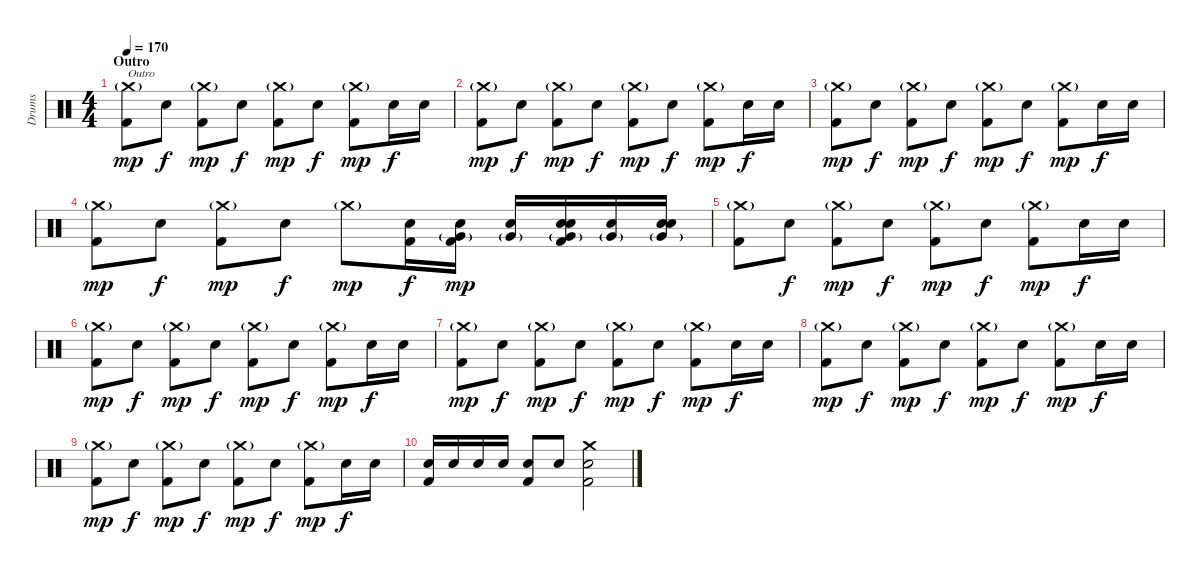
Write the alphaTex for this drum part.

\track ("Drums" "Drums") {instrument percussion}
\staff {score}
\articulation defaults
\ts (4 4)
\section ("" "Outro")
\tempo 170
\clef neutral
\ks c
("Crash medium (hit)"{g} "Kick (hit) 2").8{txt "Outro" dy mp} "Snare (hit) 2".8{dy f} ("Crash medium (hit)"{g} "Kick (hit) 2").8{dy mp} "Snare (hit) 2".8{dy f} ("Crash medium (hit)"{g} "Kick (hit) 2").8{dy mp} "Snare (hit) 2".8{dy f} ("Crash medium (hit)"{g} "Kick (hit) 2").8{dy mp} "Snare (hit) 2".16{dy f} "Snare (hit) 2".16 |
("Crash medium (hit)"{g} "Kick (hit) 2").8{dy mp} "Snare (hit) 2".8{dy f} ("Crash medium (hit)"{g} "Kick (hit) 2").8{dy mp} "Snare (hit) 2".8{dy f} ("Crash medium (hit)"{g} "Kick (hit) 2").8{dy mp} "Snare (hit) 2".8{dy f} ("Crash medium (hit)"{g} "Kick (hit) 2").8{dy mp} "Snare (hit) 2".16{dy f} "Snare (hit) 2".16 |
("Crash medium (hit)"{g} "Kick (hit) 2").8{dy mp} "Snare (hit) 2".8{dy f} ("Crash medium (hit)"{g} "Kick (hit) 2").8{dy mp} "Snare (hit) 2".8{dy f} ("Crash medium (hit)"{g} "Kick (hit) 2").8{dy mp} "Snare (hit) 2".8{dy f} ("Crash medium (hit)"{g} "Kick (hit) 2").8{dy mp} "Snare (hit) 2".16{dy f} "Snare (hit) 2".16 |
("Crash medium (hit)"{g} "Kick (hit) 2").8{dy mp} "Snare (hit) 2".8{dy f} ("Crash medium (hit)"{g} "Kick (hit) 2").8{dy mp} "Snare (hit) 2".8{dy f} "Crash medium (hit)"{g}.8{dy mp} ("Snare (hit) 2" "Kick (hit) 2").16{dy f} ("Very Low Tom (hit)"{g} "Snare (hit) 2" "Kick (hit) 2").16{dy mp} ("Very Low Tom (hit)"{g} "Snare (hit) 2").16 ("Very Low Tom (hit)"{g} "Snare (hit) 2" "Kick (hit) 2" "Snare (hit) 2").16 ("Very Low Tom (hit)"{g} "Snare (hit) 2").16 ("Very Low Tom (hit)"{g} "Snare (hit) 2" "Snare (hit) 2").16 |
("Crash medium (hit)"{g} "Kick (hit) 2").8 "Snare (hit) 2".8{dy f} ("Crash medium (hit)"{g} "Kick (hit) 2").8{dy mp} "Snare (hit) 2".8{dy f} ("Crash medium (hit)"{g} "Kick (hit) 2").8{dy mp} "Snare (hit) 2".8{dy f} ("Crash medium (hit)"{g} "Kick (hit) 2").8{dy mp} "Snare (hit) 2".16{dy f} "Snare (hit) 2".16 |
("Crash medium (hit)"{g} "Kick (hit) 2").8{dy mp} "Snare (hit) 2".8{dy f} ("Crash medium (hit)"{g} "Kick (hit) 2").8{dy mp} "Snare (hit) 2".8{dy f} ("Crash medium (hit)"{g} "Kick (hit) 2").8{dy mp} "Snare (hit) 2".8{dy f} ("Crash medium (hit)"{g} "Kick (hit) 2").8{dy mp} "Snare (hit) 2".16{dy f} "Snare (hit) 2".16 |
("Crash medium (hit)"{g} "Kick (hit) 2").8{dy mp} "Snare (hit) 2".8{dy f} ("Crash medium (hit)"{g} "Kick (hit) 2").8{dy mp} "Snare (hit) 2".8{dy f} ("Crash medium (hit)"{g} "Kick (hit) 2").8{dy mp} "Snare (hit) 2".8{dy f} ("Crash medium (hit)"{g} "Kick (hit) 2").8{dy mp} "Snare (hit) 2".16{dy f} "Snare (hit) 2".16 |
("Crash medium (hit)"{g} "Kick (hit) 2").8{dy mp} "Snare (hit) 2".8{dy f} ("Crash medium (hit)"{g} "Kick (hit) 2").8{dy mp} "Snare (hit) 2".8{dy f} ("Crash medium (hit)"{g} "Kick (hit) 2").8{dy mp} "Snare (hit) 2".8{dy f} ("Crash medium (hit)"{g} "Kick (hit) 2").8{dy mp} "Snare (hit) 2".16{dy f} "Snare (hit) 2".16 |
("Crash medium (hit)"{g} "Kick (hit) 2").8{dy mp} "Snare (hit) 2".8{dy f} ("Crash medium (hit)"{g} "Kick (hit) 2").8{dy mp} "Snare (hit) 2".8{dy f} ("Crash medium (hit)"{g} "Kick (hit) 2").8{dy mp} "Snare (hit) 2".8{dy f} ("Crash medium (hit)"{g} "Kick (hit) 2").8{dy mp} "Snare (hit) 2".16{dy f} "Snare (hit) 2".16 |
("Snare (hit) 2" "Kick (hit) 2").16 "Snare (hit) 2".16 "Snare (hit) 2".16 "Snare (hit) 2".16 ("Snare (hit) 2" "Kick (hit) 2").8 "Snare (hit) 2".8 ("Crash medium (hit)" "Snare (hit) 2" "Kick (hit) 2").2
